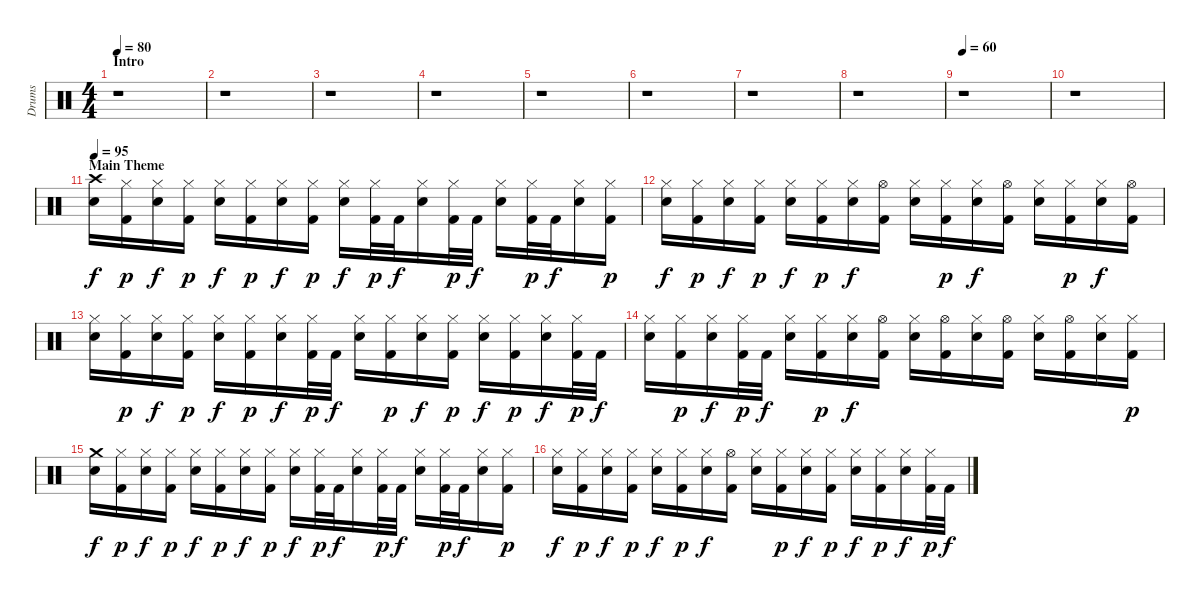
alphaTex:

\track ("Drums" "Drums") {instrument percussion}
\staff {score}
\articulation defaults
\ts (4 4)
\section ("" "Intro")
\tempo 80
\clef neutral
\ks c
r.1{dy f} |
r.1 |
r.1 |
r.1 |
r.1 |
r.1 |
r.1 |
r.1 |
\tempo 60
r.1 |
r.1 |
\section ("" "Main Theme")
\tempo 95
("Crash high (hit)" "Snare (hit) 2").16 ("Hi-Hat (closed)" "Kick (hit) 2").16{dy p} ("Hi-Hat (closed)" "Snare (hit) 2").16{dy f} ("Hi-Hat (closed)" "Kick (hit) 2").16{dy p} ("Hi-Hat (closed)" "Snare (hit) 2").16{dy f} ("Hi-Hat (closed)" "Kick (hit) 2").16{dy p} ("Hi-Hat (closed)" "Snare (hit) 2").16{dy f} ("Hi-Hat (closed)" "Kick (hit) 2").16{dy p} ("Hi-Hat (closed)" "Snare (hit) 2").16{dy f} ("Hi-Hat (closed)" "Kick (hit) 2").32{dy p} "Kick (hit) 2".32{dy f} ("Hi-Hat (closed)" "Snare (hit) 2").16 ("Hi-Hat (closed)" "Kick (hit) 2").32{dy p} "Kick (hit) 2".32{dy f} ("Hi-Hat (closed)" "Snare (hit) 2").16 ("Hi-Hat (closed)" "Kick (hit) 2").32{dy p} "Kick (hit) 2".32{dy f} ("Hi-Hat (closed)" "Snare (hit) 2").16 ("Hi-Hat (closed)" "Kick (hit) 2").16{dy p} |
("Hi-Hat (closed)" "Snare (hit) 2").16{dy f} ("Hi-Hat (closed)" "Kick (hit) 2").16{dy p} ("Hi-Hat (closed)" "Snare (hit) 2").16{dy f} ("Hi-Hat (closed)" "Kick (hit) 2").16{dy p} ("Hi-Hat (closed)" "Snare (hit) 2").16{dy f} ("Hi-Hat (closed)" "Kick (hit) 2").16{dy p} ("Hi-Hat (closed)" "Snare (hit) 2").16{dy f} ("Hi-Hat (open)" "Kick (hit) 2").16 ("Hi-Hat (closed)" "Snare (hit) 2").16 ("Hi-Hat (closed)" "Kick (hit) 2").16{dy p} ("Hi-Hat (closed)" "Snare (hit) 2").16{dy f} ("Hi-Hat (open)" "Kick (hit) 2").16 ("Hi-Hat (closed)" "Snare (hit) 2").16 ("Hi-Hat (closed)" "Kick (hit) 2").16{dy p} ("Hi-Hat (closed)" "Snare (hit) 2").16{dy f} ("Hi-Hat (open)" "Kick (hit) 2").16 |
("Hi-Hat (closed)" "Snare (hit) 2").16 ("Hi-Hat (closed)" "Kick (hit) 2").16{dy p} ("Hi-Hat (closed)" "Snare (hit) 2").16{dy f} ("Hi-Hat (closed)" "Kick (hit) 2").16{dy p} ("Hi-Hat (closed)" "Snare (hit) 2").16{dy f} ("Hi-Hat (closed)" "Kick (hit) 2").16{dy p} ("Hi-Hat (closed)" "Snare (hit) 2").16{dy f} ("Hi-Hat (closed)" "Kick (hit) 2").32{dy p} "Kick (hit) 2".32{dy f} ("Hi-Hat (closed)" "Snare (hit) 2").16 ("Hi-Hat (closed)" "Kick (hit) 2").16{dy p} ("Hi-Hat (closed)" "Snare (hit) 2").16{dy f} ("Hi-Hat (closed)" "Kick (hit) 2").16{dy p} ("Hi-Hat (closed)" "Snare (hit) 2").16{dy f} ("Hi-Hat (closed)" "Kick (hit) 2").16{dy p} ("Hi-Hat (closed)" "Snare (hit) 2").16{dy f} ("Hi-Hat (closed)" "Kick (hit) 2").32{dy p} "Kick (hit) 2".32{dy f} |
("Hi-Hat (closed)" "Snare (hit) 2").16 ("Hi-Hat (closed)" "Kick (hit) 2").16{dy p} ("Hi-Hat (closed)" "Snare (hit) 2").16{dy f} ("Hi-Hat (closed)" "Kick (hit) 2").32{dy p} "Kick (hit) 2".32{dy f} ("Hi-Hat (closed)" "Snare (hit) 2").16 ("Hi-Hat (closed)" "Kick (hit) 2").16{dy p} ("Hi-Hat (closed)" "Snare (hit) 2").16{dy f} ("Hi-Hat (open)" "Kick (hit) 2").16 ("Hi-Hat (closed)" "Snare (hit) 2").16 ("Hi-Hat (open)" "Kick (hit) 2").16 ("Hi-Hat (closed)" "Snare (hit) 2").16 ("Hi-Hat (open)" "Kick (hit) 2").16 ("Hi-Hat (closed)" "Snare (hit) 2").16 ("Hi-Hat (open)" "Kick (hit) 2").16 ("Hi-Hat (closed)" "Snare (hit) 2").16 ("Hi-Hat (closed)" "Kick (hit) 2").16{dy p} |
("Crash medium (hit)" "Snare (hit) 2").16{dy f} ("Hi-Hat (closed)" "Kick (hit) 2").16{dy p} ("Hi-Hat (closed)" "Snare (hit) 2").16{dy f} ("Hi-Hat (closed)" "Kick (hit) 2").16{dy p} ("Hi-Hat (closed)" "Snare (hit) 2").16{dy f} ("Hi-Hat (closed)" "Kick (hit) 2").16{dy p} ("Hi-Hat (closed)" "Snare (hit) 2").16{dy f} ("Hi-Hat (closed)" "Kick (hit) 2").16{dy p} ("Hi-Hat (closed)" "Snare (hit) 2").16{dy f} ("Hi-Hat (closed)" "Kick (hit) 2").32{dy p} "Kick (hit) 2".32{dy f} ("Hi-Hat (closed)" "Snare (hit) 2").16 ("Hi-Hat (closed)" "Kick (hit) 2").32{dy p} "Kick (hit) 2".32{dy f} ("Hi-Hat (closed)" "Snare (hit) 2").16 ("Hi-Hat (closed)" "Kick (hit) 2").32{dy p} "Kick (hit) 2".32{dy f} ("Hi-Hat (closed)" "Snare (hit) 2").16 ("Hi-Hat (closed)" "Kick (hit) 2").16{dy p} |
("Hi-Hat (closed)" "Snare (hit) 2").16{dy f} ("Hi-Hat (closed)" "Kick (hit) 2").16{dy p} ("Hi-Hat (closed)" "Snare (hit) 2").16{dy f} ("Hi-Hat (closed)" "Kick (hit) 2").16{dy p} ("Hi-Hat (closed)" "Snare (hit) 2").16{dy f} ("Hi-Hat (closed)" "Kick (hit) 2").16{dy p} ("Hi-Hat (closed)" "Snare (hit) 2").16{dy f} ("Hi-Hat (open)" "Kick (hit) 2").16 ("Hi-Hat (closed)" "Snare (hit) 2").16 ("Hi-Hat (closed)" "Kick (hit) 2").16{dy p} ("Hi-Hat (closed)" "Snare (hit) 2").16{dy f} ("Hi-Hat (closed)" "Kick (hit) 2").16{dy p} ("Hi-Hat (closed)" "Snare (hit) 2").16{dy f} ("Hi-Hat (closed)" "Kick (hit) 2").16{dy p} ("Hi-Hat (closed)" "Snare (hit) 2").16{dy f} ("Hi-Hat (closed)" "Kick (hit) 2").32{dy p} "Kick (hit) 2".32{dy f}
